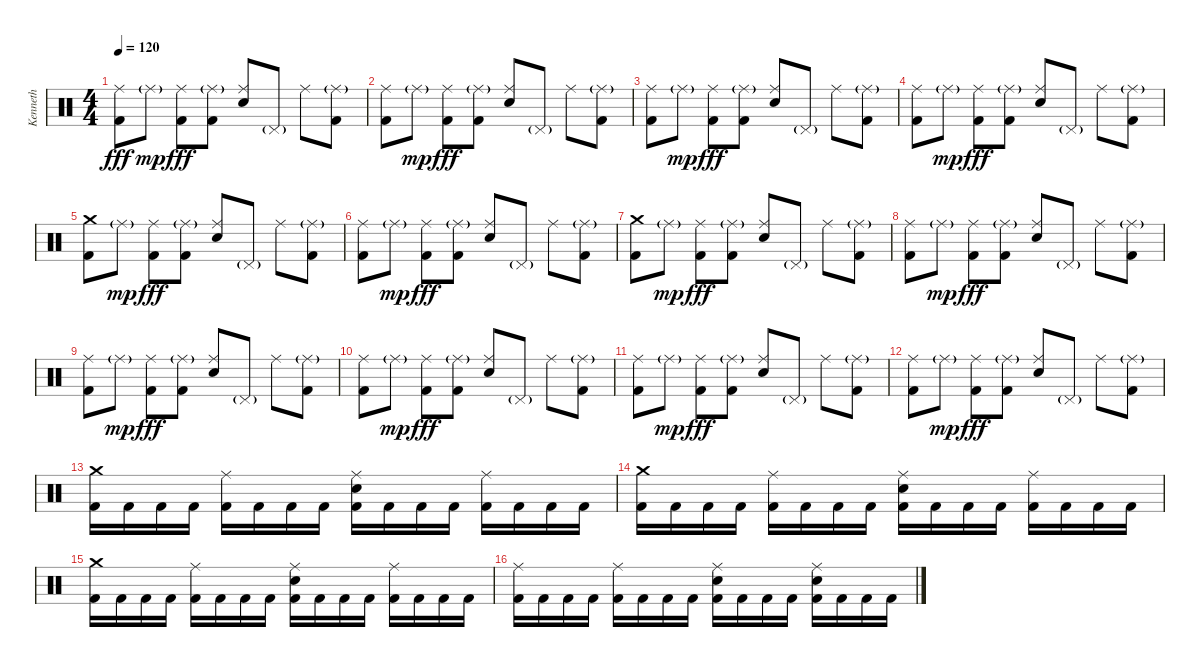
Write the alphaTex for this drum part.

\track ("Kenneth" "Kenneth") {instrument percussion}
\staff {score}
\articulation defaults
\ts (4 4)
\tempo 120
\clef neutral
\ks c
("Ride (middle)" "Kick (hit) 2").8{dy fff} "Ride (middle)"{g}.8{dy mp} ("Ride (middle)" "Kick (hit) 2").8{dy fff} ("Ride (middle)"{g} "Kick (hit) 2").8 ("Ride (middle)" "Electric Snare (hit)").8 "Pedal Hi-Hat (hit)"{g}.8 "Ride (middle)".8 ("Ride (middle)"{g} "Kick (hit) 2").8 |
("Ride (middle)" "Kick (hit) 2").8 "Ride (middle)"{g}.8{dy mp} ("Ride (middle)" "Kick (hit) 2").8{dy fff} ("Ride (middle)"{g} "Kick (hit) 2").8 ("Ride (middle)" "Electric Snare (hit)").8 "Pedal Hi-Hat (hit)"{g}.8 "Ride (middle)".8 ("Ride (middle)"{g} "Kick (hit) 2").8 |
("Ride (middle)" "Kick (hit) 2").8 "Ride (middle)"{g}.8{dy mp} ("Ride (middle)" "Kick (hit) 2").8{dy fff} ("Ride (middle)"{g} "Kick (hit) 2").8 ("Ride (middle)" "Electric Snare (hit)").8 "Pedal Hi-Hat (hit)"{g}.8 "Ride (middle)".8 ("Ride (middle)"{g} "Kick (hit) 2").8 |
("Ride (middle)" "Kick (hit) 2").8 "Ride (middle)"{g}.8{dy mp} ("Ride (middle)" "Kick (hit) 2").8{dy fff} ("Ride (middle)"{g} "Kick (hit) 2").8 ("Ride (middle)" "Electric Snare (hit)").8 "Pedal Hi-Hat (hit)"{g}.8 "Ride (middle)".8 ("Ride (middle)"{g} "Kick (hit) 2").8 |
("Crash medium (hit)" "Kick (hit) 2").8 "Ride (middle)"{g}.8{dy mp} ("Ride (middle)" "Kick (hit) 2").8{dy fff} ("Ride (middle)"{g} "Kick (hit) 2").8 ("Ride (middle)" "Electric Snare (hit)").8 "Pedal Hi-Hat (hit)"{g}.8 "Ride (middle)".8 ("Ride (middle)"{g} "Kick (hit) 2").8 |
("Ride (middle)" "Kick (hit) 2").8 "Ride (middle)"{g}.8{dy mp} ("Ride (middle)" "Kick (hit) 2").8{dy fff} ("Ride (middle)"{g} "Kick (hit) 2").8 ("Ride (middle)" "Electric Snare (hit)").8 "Pedal Hi-Hat (hit)"{g}.8 "Ride (middle)".8 ("Ride (middle)"{g} "Kick (hit) 2").8 |
("Crash medium (hit)" "Kick (hit) 2").8 "Ride (middle)"{g}.8{dy mp} ("Ride (middle)" "Kick (hit) 2").8{dy fff} ("Ride (middle)"{g} "Kick (hit) 2").8 ("Ride (middle)" "Electric Snare (hit)").8 "Pedal Hi-Hat (hit)"{g}.8 "Ride (middle)".8 ("Ride (middle)"{g} "Kick (hit) 2").8 |
("Ride (middle)" "Kick (hit) 2").8 "Ride (middle)"{g}.8{dy mp} ("Ride (middle)" "Kick (hit) 2").8{dy fff} ("Ride (middle)"{g} "Kick (hit) 2").8 ("Ride (middle)" "Electric Snare (hit)").8 "Pedal Hi-Hat (hit)"{g}.8 "Ride (middle)".8 ("Ride (middle)"{g} "Kick (hit) 2").8 |
("Ride (middle)" "Kick (hit) 2").8 "Ride (middle)"{g}.8{dy mp} ("Ride (middle)" "Kick (hit) 2").8{dy fff} ("Ride (middle)"{g} "Kick (hit) 2").8 ("Ride (middle)" "Electric Snare (hit)").8 "Pedal Hi-Hat (hit)"{g}.8 "Ride (middle)".8 ("Ride (middle)"{g} "Kick (hit) 2").8 |
("Ride (middle)" "Kick (hit) 2").8 "Ride (middle)"{g}.8{dy mp} ("Ride (middle)" "Kick (hit) 2").8{dy fff} ("Ride (middle)"{g} "Kick (hit) 2").8 ("Ride (middle)" "Electric Snare (hit)").8 "Pedal Hi-Hat (hit)"{g}.8 "Ride (middle)".8 ("Ride (middle)"{g} "Kick (hit) 2").8 |
("Ride (middle)" "Kick (hit) 2").8 "Ride (middle)"{g}.8{dy mp} ("Ride (middle)" "Kick (hit) 2").8{dy fff} ("Ride (middle)"{g} "Kick (hit) 2").8 ("Ride (middle)" "Electric Snare (hit)").8 "Pedal Hi-Hat (hit)"{g}.8 "Ride (middle)".8 ("Ride (middle)"{g} "Kick (hit) 2").8 |
("Ride (middle)" "Kick (hit) 2").8 "Ride (middle)"{g}.8{dy mp} ("Ride (middle)" "Kick (hit) 2").8{dy fff} ("Ride (middle)"{g} "Kick (hit) 2").8 ("Ride (middle)" "Electric Snare (hit)").8 "Pedal Hi-Hat (hit)"{g}.8 "Ride (middle)".8 ("Ride (middle)"{g} "Kick (hit) 2").8 |
("Crash medium (hit)" "Kick (hit) 2").16 "Kick (hit) 2".16 "Kick (hit) 2".16 "Kick (hit) 2".16 ("Ride (middle)" "Kick (hit) 2").16 "Kick (hit) 2".16 "Kick (hit) 2".16 "Kick (hit) 2".16 ("Ride (middle)" "Electric Snare (hit)" "Kick (hit) 2").16 "Kick (hit) 2".16 "Kick (hit) 2".16 "Kick (hit) 2".16 ("Ride (middle)" "Kick (hit) 2").16 "Kick (hit) 2".16 "Kick (hit) 2".16 "Kick (hit) 2".16 |
("Crash medium (hit)" "Kick (hit) 2").16 "Kick (hit) 2".16 "Kick (hit) 2".16 "Kick (hit) 2".16 ("Ride (middle)" "Kick (hit) 2").16 "Kick (hit) 2".16 "Kick (hit) 2".16 "Kick (hit) 2".16 ("Ride (middle)" "Electric Snare (hit)" "Kick (hit) 2").16 "Kick (hit) 2".16 "Kick (hit) 2".16 "Kick (hit) 2".16 ("Ride (middle)" "Kick (hit) 2").16 "Kick (hit) 2".16 "Kick (hit) 2".16 "Kick (hit) 2".16 |
("Crash medium (hit)" "Kick (hit) 2").16 "Kick (hit) 2".16 "Kick (hit) 2".16 "Kick (hit) 2".16 ("Ride (middle)" "Kick (hit) 2").16 "Kick (hit) 2".16 "Kick (hit) 2".16 "Kick (hit) 2".16 ("Ride (middle)" "Electric Snare (hit)" "Kick (hit) 2").16 "Kick (hit) 2".16 "Kick (hit) 2".16 "Kick (hit) 2".16 ("Ride (middle)" "Kick (hit) 2").16 "Kick (hit) 2".16 "Kick (hit) 2".16 "Kick (hit) 2".16 |
("Ride (middle)" "Kick (hit) 2").16 "Kick (hit) 2".16 "Kick (hit) 2".16 "Kick (hit) 2".16 ("Ride (middle)" "Kick (hit) 2").16 "Kick (hit) 2".16 "Kick (hit) 2".16 "Kick (hit) 2".16 ("Ride (middle)" "Electric Snare (hit)" "Kick (hit) 2").16 "Kick (hit) 2".16 "Kick (hit) 2".16 "Kick (hit) 2".16 ("Ride (middle)" "Electric Snare (hit)" "Kick (hit) 2").16 "Kick (hit) 2".16 "Kick (hit) 2".16 "Kick (hit) 2".16
